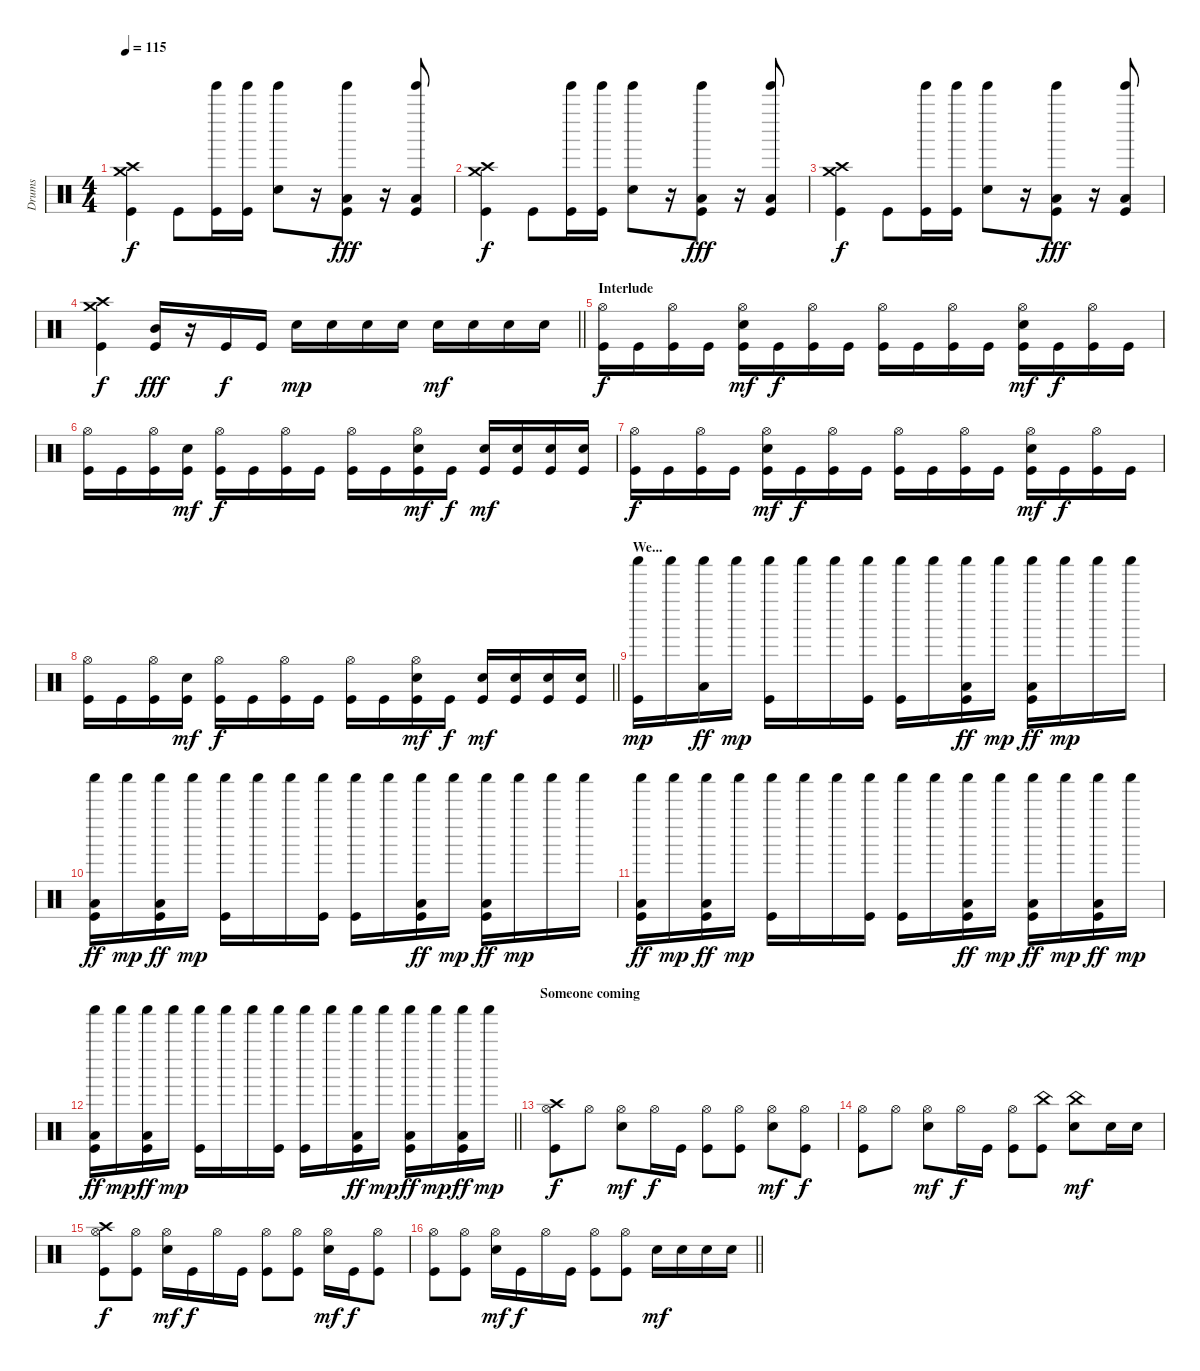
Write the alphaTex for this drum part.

\track ("Drums" "Drums") {instrument percussion}
\staff {score}
\articulation defaults
\ts (4 4)
\tempo 115
\clef neutral
\ks c
("Crash high (hit)" "Crash medium (hit)" "Kick (hit)").4{dy f} "Kick (hit)".8 ("Tinkle Bell (hit)" "Kick (hit)").16 ("Tinkle Bell (hit)" "Kick (hit)").16 ("Tinkle Bell (hit)" "Snare (hit) 2").8 r.16 ("Tinkle Bell (hit)" "Low Tom (hit)" "Kick (hit)").8{dy fff} r.16 ("Tinkle Bell (hit)" "Low Tom (hit)" "Kick (hit)").8 |
("Crash high (hit)" "Crash medium (hit)" "Kick (hit)").4{dy f} "Kick (hit)".8 ("Tinkle Bell (hit)" "Kick (hit)").16 ("Tinkle Bell (hit)" "Kick (hit)").16 ("Tinkle Bell (hit)" "Snare (hit) 2").8 r.16 ("Tinkle Bell (hit)" "Low Tom (hit)" "Kick (hit)").8{dy fff} r.16 ("Tinkle Bell (hit)" "Low Tom (hit)" "Kick (hit)").8 |
("Crash high (hit)" "Crash medium (hit)" "Kick (hit)").4{dy f} "Kick (hit)".8 ("Tinkle Bell (hit)" "Kick (hit)").16 ("Tinkle Bell (hit)" "Kick (hit)").16 ("Tinkle Bell (hit)" "Snare (hit) 2").8 r.16 ("Tinkle Bell (hit)" "Low Tom (hit)" "Kick (hit)").8{dy fff} r.16 ("Tinkle Bell (hit)" "Low Tom (hit)" "Kick (hit)").8 |
\barLineRight lightlight
("Crash high (hit)" "Crash medium (hit)" "Kick (hit)").4{dy f} ("Mid Tom (hit)" "Kick (hit)").16{dy fff} r.16 "Kick (hit)".16{dy f} "Kick (hit)".16 "Snare (hit) 2".16{dy mp} "Snare (hit) 2".16 "Snare (hit) 2".16 "Snare (hit) 2".16 "Snare (hit) 2".16{dy mf} "Snare (hit) 2".16 "Snare (hit) 2".16 "Snare (hit) 2".16 |
\section ("" "Interlude")
("Hi-Hat (open)" "Kick (hit)").16{dy f} "Kick (hit)".16 ("Hi-Hat (open)" "Kick (hit)").16 "Kick (hit)".16 ("Hi-Hat (open)" "Snare (hit) 2" "Kick (hit)").16{dy mf} "Kick (hit)".16{dy f} ("Hi-Hat (open)" "Kick (hit)").16 "Kick (hit)".16 ("Hi-Hat (open)" "Kick (hit)").16 "Kick (hit)".16 ("Hi-Hat (open)" "Kick (hit)").16 "Kick (hit)".16 ("Hi-Hat (open)" "Snare (hit) 2" "Kick (hit)").16{dy mf} "Kick (hit)".16{dy f} ("Hi-Hat (open)" "Kick (hit)").16 "Kick (hit)".16 |
("Hi-Hat (open)" "Kick (hit)").16 "Kick (hit)".16 ("Hi-Hat (open)" "Kick (hit)").16 ("Snare (hit) 2" "Kick (hit)").16{dy mf} ("Hi-Hat (open)" "Kick (hit)").16{dy f} "Kick (hit)".16 ("Hi-Hat (open)" "Kick (hit)").16 "Kick (hit)".16 ("Hi-Hat (open)" "Kick (hit)").16 "Kick (hit)".16 ("Hi-Hat (open)" "Snare (hit) 2" "Kick (hit)").16{dy mf} "Kick (hit)".16{dy f} ("Snare (hit) 2" "Kick (hit)").16{dy mf} ("Snare (hit) 2" "Kick (hit)").16 ("Snare (hit) 2" "Kick (hit)").16 ("Snare (hit) 2" "Kick (hit)").16 |
("Hi-Hat (open)" "Kick (hit)").16{dy f} "Kick (hit)".16 ("Hi-Hat (open)" "Kick (hit)").16 "Kick (hit)".16 ("Hi-Hat (open)" "Snare (hit) 2" "Kick (hit)").16{dy mf} "Kick (hit)".16{dy f} ("Hi-Hat (open)" "Kick (hit)").16 "Kick (hit)".16 ("Hi-Hat (open)" "Kick (hit)").16 "Kick (hit)".16 ("Hi-Hat (open)" "Kick (hit)").16 "Kick (hit)".16 ("Hi-Hat (open)" "Snare (hit) 2" "Kick (hit)").16{dy mf} "Kick (hit)".16{dy f} ("Hi-Hat (open)" "Kick (hit)").16 "Kick (hit)".16 |
\barLineRight lightlight
("Hi-Hat (open)" "Kick (hit)").16 "Kick (hit)".16 ("Hi-Hat (open)" "Kick (hit)").16 ("Snare (hit) 2" "Kick (hit)").16{dy mf} ("Hi-Hat (open)" "Kick (hit)").16{dy f} "Kick (hit)".16 ("Hi-Hat (open)" "Kick (hit)").16 "Kick (hit)".16 ("Hi-Hat (open)" "Kick (hit)").16 "Kick (hit)".16 ("Hi-Hat (open)" "Snare (hit) 2" "Kick (hit)").16{dy mf} "Kick (hit)".16{dy f} ("Snare (hit) 2" "Kick (hit)").16{dy mf} ("Snare (hit) 2" "Kick (hit)").16 ("Snare (hit) 2" "Kick (hit)").16 ("Snare (hit) 2" "Kick (hit)").16 |
\section ("" "We...")
("Shaker (hit)" "Kick (hit)").16{dy mp} "Shaker (hit)".16 ("Shaker (hit)" "Low Tom (hit)").16{dy ff} "Shaker (hit)".16{dy mp} ("Shaker (hit)" "Kick (hit)").16 "Shaker (hit)".16 "Shaker (hit)".16 ("Shaker (hit)" "Kick (hit)").16 ("Shaker (hit)" "Kick (hit)").16 "Shaker (hit)".16 ("Shaker (hit)" "Low Tom (hit)" "Kick (hit)").16{dy ff} "Shaker (hit)".16{dy mp} ("Shaker (hit)" "Low Tom (hit)" "Kick (hit)").16{dy ff} "Shaker (hit)".16{dy mp} "Shaker (hit)".16 "Shaker (hit)".16 |
("Shaker (hit)" "Low Tom (hit)" "Kick (hit)").16{dy ff} "Shaker (hit)".16{dy mp} ("Shaker (hit)" "Low Tom (hit)" "Kick (hit)").16{dy ff} "Shaker (hit)".16{dy mp} ("Shaker (hit)" "Kick (hit)").16 "Shaker (hit)".16 "Shaker (hit)".16 ("Shaker (hit)" "Kick (hit)").16 ("Shaker (hit)" "Kick (hit)").16 "Shaker (hit)".16 ("Shaker (hit)" "Low Tom (hit)" "Kick (hit)").16{dy ff} "Shaker (hit)".16{dy mp} ("Shaker (hit)" "Low Tom (hit)" "Kick (hit)").16{dy ff} "Shaker (hit)".16{dy mp} "Shaker (hit)".16 "Shaker (hit)".16 |
("Shaker (hit)" "Low Tom (hit)" "Kick (hit)").16{dy ff} "Shaker (hit)".16{dy mp} ("Shaker (hit)" "Low Tom (hit)" "Kick (hit)").16{dy ff} "Shaker (hit)".16{dy mp} ("Shaker (hit)" "Kick (hit)").16 "Shaker (hit)".16 "Shaker (hit)".16 ("Shaker (hit)" "Kick (hit)").16 ("Shaker (hit)" "Kick (hit)").16 "Shaker (hit)".16 ("Shaker (hit)" "Low Tom (hit)" "Kick (hit)").16{dy ff} "Shaker (hit)".16{dy mp} ("Shaker (hit)" "Low Tom (hit)" "Kick (hit)").16{dy ff} "Shaker (hit)".16{dy mp} ("Shaker (hit)" "Low Tom (hit)" "Kick (hit)").16{dy ff} "Shaker (hit)".16{dy mp} |
\barLineRight lightlight
("Shaker (hit)" "Low Tom (hit)" "Kick (hit)").16{dy ff} "Shaker (hit)".16{dy mp} ("Shaker (hit)" "Low Tom (hit)" "Kick (hit)").16{dy ff} "Shaker (hit)".16{dy mp} ("Shaker (hit)" "Kick (hit)").16 "Shaker (hit)".16 "Shaker (hit)".16 ("Shaker (hit)" "Kick (hit)").16 ("Shaker (hit)" "Kick (hit)").16 "Shaker (hit)".16 ("Shaker (hit)" "Low Tom (hit)" "Kick (hit)").16{dy ff} "Shaker (hit)".16{dy mp} ("Shaker (hit)" "Low Tom (hit)" "Kick (hit)").16{dy ff} "Shaker (hit)".16{dy mp} ("Shaker (hit)" "Low Tom (hit)" "Kick (hit)").16{dy ff} "Shaker (hit)".16{dy mp} |
\section ("" "Someone coming")
("Crash high (hit)" "Hi-Hat (open)" "Kick (hit)").8{dy f} "Hi-Hat (open)".8 ("Hi-Hat (open)" "Snare (hit) 2").8{dy mf} "Hi-Hat (open)".16{dy f} "Kick (hit)".16 ("Hi-Hat (open)" "Kick (hit)").8 ("Hi-Hat (open)" "Kick (hit)").8 ("Hi-Hat (open)" "Snare (hit) 2").8{dy mf} ("Hi-Hat (open)" "Kick (hit)").8{dy f} |
("Hi-Hat (open)" "Kick (hit)").8 "Hi-Hat (open)".8 ("Hi-Hat (open)" "Snare (hit) 2").8{dy mf} "Hi-Hat (open)".16{dy f} "Kick (hit)".16 ("Hi-Hat (open)" "Kick (hit)").8 ("China (hit)" "Kick (hit)").8 ("China (hit)" "Snare (hit) 2").8{dy mf} "Snare (hit) 2".16 "Snare (hit) 2".16 |
("Crash high (hit)" "Hi-Hat (open)" "Kick (hit)").8{dy f} ("Hi-Hat (open)" "Kick (hit)").8 ("Hi-Hat (open)" "Snare (hit) 2").16{dy mf} "Kick (hit)".16{dy f} "Hi-Hat (open)".16 "Kick (hit)".16 ("Hi-Hat (open)" "Kick (hit)").8 ("Hi-Hat (open)" "Kick (hit)").8 ("Hi-Hat (open)" "Snare (hit) 2").16{dy mf} "Kick (hit)".16{dy f} ("Hi-Hat (open)" "Kick (hit)").8 |
\barLineRight lightlight
("Hi-Hat (open)" "Kick (hit)").8 ("Hi-Hat (open)" "Kick (hit)").8 ("Hi-Hat (open)" "Snare (hit) 2").16{dy mf} "Kick (hit)".16{dy f} "Hi-Hat (open)".16 "Kick (hit)".16 ("Hi-Hat (open)" "Kick (hit)").8 ("Hi-Hat (open)" "Kick (hit)").8 "Snare (hit) 2".16{dy mf} "Snare (hit) 2".16 "Snare (hit) 2".16 "Snare (hit) 2".16
